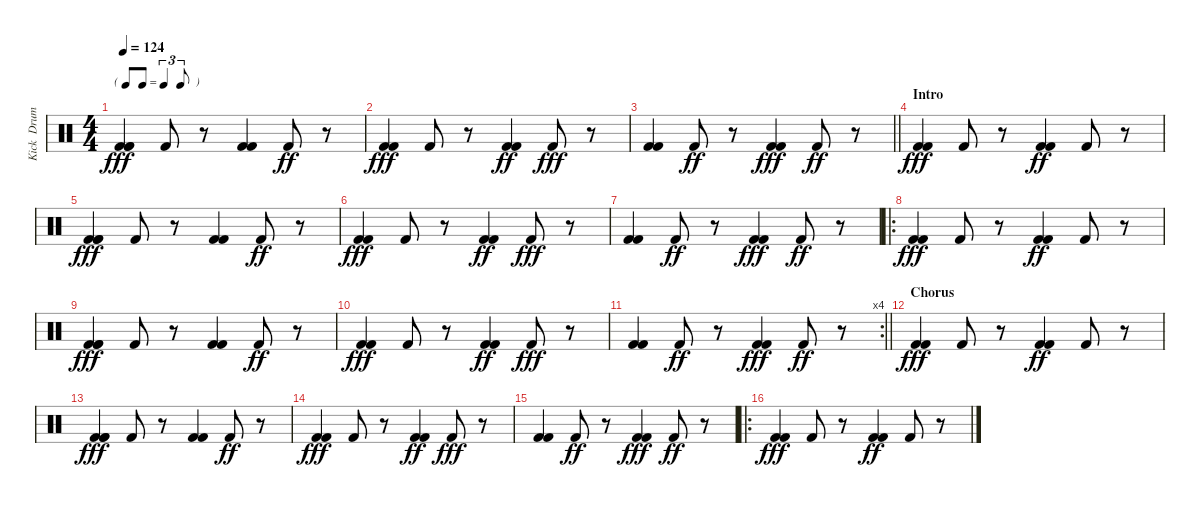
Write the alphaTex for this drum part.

\track ("Kick  Drum" "Kick  Drum") {instrument percussion}
\staff {score}
\articulation defaults
\ts (4 4)
\tf triplet8th
\tempo 124
\clef neutral
\ks c
("Kick (hit) 2" "Kick (hit) 2" "Kick (hit) 2").4{dy fff} "Kick (hit) 2".8 r.8 ("Kick (hit) 2" "Kick (hit) 2").4 "Kick (hit) 2".8{dy ff} r.8 |
("Kick (hit) 2" "Kick (hit) 2").4{dy fff} "Kick (hit) 2".8 r.8 ("Kick (hit) 2" "Kick (hit) 2").4{dy ff} "Kick (hit) 2".8{dy fff} r.8 |
\barLineRight lightlight
("Kick (hit) 2" "Kick (hit) 2").4 "Kick (hit) 2".8{dy ff} r.8 ("Kick (hit) 2" "Kick (hit) 2").4{dy fff} "Kick (hit) 2".8{dy ff} r.8 |
\section ("" "Intro")
("Kick (hit) 2" "Kick (hit) 2").4{dy fff} "Kick (hit) 2".8 r.8 ("Kick (hit) 2" "Kick (hit) 2").4{dy ff} "Kick (hit) 2".8 r.8 |
("Kick (hit) 2" "Kick (hit) 2" "Kick (hit) 2").4{dy fff} "Kick (hit) 2".8 r.8 ("Kick (hit) 2" "Kick (hit) 2").4 "Kick (hit) 2".8{dy ff} r.8 |
("Kick (hit) 2" "Kick (hit) 2").4{dy fff} "Kick (hit) 2".8 r.8 ("Kick (hit) 2" "Kick (hit) 2").4{dy ff} "Kick (hit) 2".8{dy fff} r.8 |
("Kick (hit) 2" "Kick (hit) 2").4 "Kick (hit) 2".8{dy ff} r.8 ("Kick (hit) 2" "Kick (hit) 2").4{dy fff} "Kick (hit) 2".8{dy ff} r.8 |
\ro
("Kick (hit) 2" "Kick (hit) 2").4{dy fff} "Kick (hit) 2".8 r.8 ("Kick (hit) 2" "Kick (hit) 2").4{dy ff} "Kick (hit) 2".8 r.8 |
("Kick (hit) 2" "Kick (hit) 2" "Kick (hit) 2").4{dy fff} "Kick (hit) 2".8 r.8 ("Kick (hit) 2" "Kick (hit) 2").4 "Kick (hit) 2".8{dy ff} r.8 |
("Kick (hit) 2" "Kick (hit) 2").4{dy fff} "Kick (hit) 2".8 r.8 ("Kick (hit) 2" "Kick (hit) 2").4{dy ff} "Kick (hit) 2".8{dy fff} r.8 |
\rc 4
\barLineRight lightlight
("Kick (hit) 2" "Kick (hit) 2").4 "Kick (hit) 2".8{dy ff} r.8 ("Kick (hit) 2" "Kick (hit) 2").4{dy fff} "Kick (hit) 2".8{dy ff} r.8 |
\section ("" "Chorus")
("Kick (hit) 2" "Kick (hit) 2").4{dy fff} "Kick (hit) 2".8 r.8 ("Kick (hit) 2" "Kick (hit) 2").4{dy ff} "Kick (hit) 2".8 r.8 |
("Kick (hit) 2" "Kick (hit) 2" "Kick (hit) 2").4{dy fff} "Kick (hit) 2".8 r.8 ("Kick (hit) 2" "Kick (hit) 2").4 "Kick (hit) 2".8{dy ff} r.8 |
("Kick (hit) 2" "Kick (hit) 2").4{dy fff} "Kick (hit) 2".8 r.8 ("Kick (hit) 2" "Kick (hit) 2").4{dy ff} "Kick (hit) 2".8{dy fff} r.8 |
("Kick (hit) 2" "Kick (hit) 2").4 "Kick (hit) 2".8{dy ff} r.8 ("Kick (hit) 2" "Kick (hit) 2").4{dy fff} "Kick (hit) 2".8{dy ff} r.8 |
\ro
("Kick (hit) 2" "Kick (hit) 2").4{dy fff} "Kick (hit) 2".8 r.8 ("Kick (hit) 2" "Kick (hit) 2").4{dy ff} "Kick (hit) 2".8 r.8
